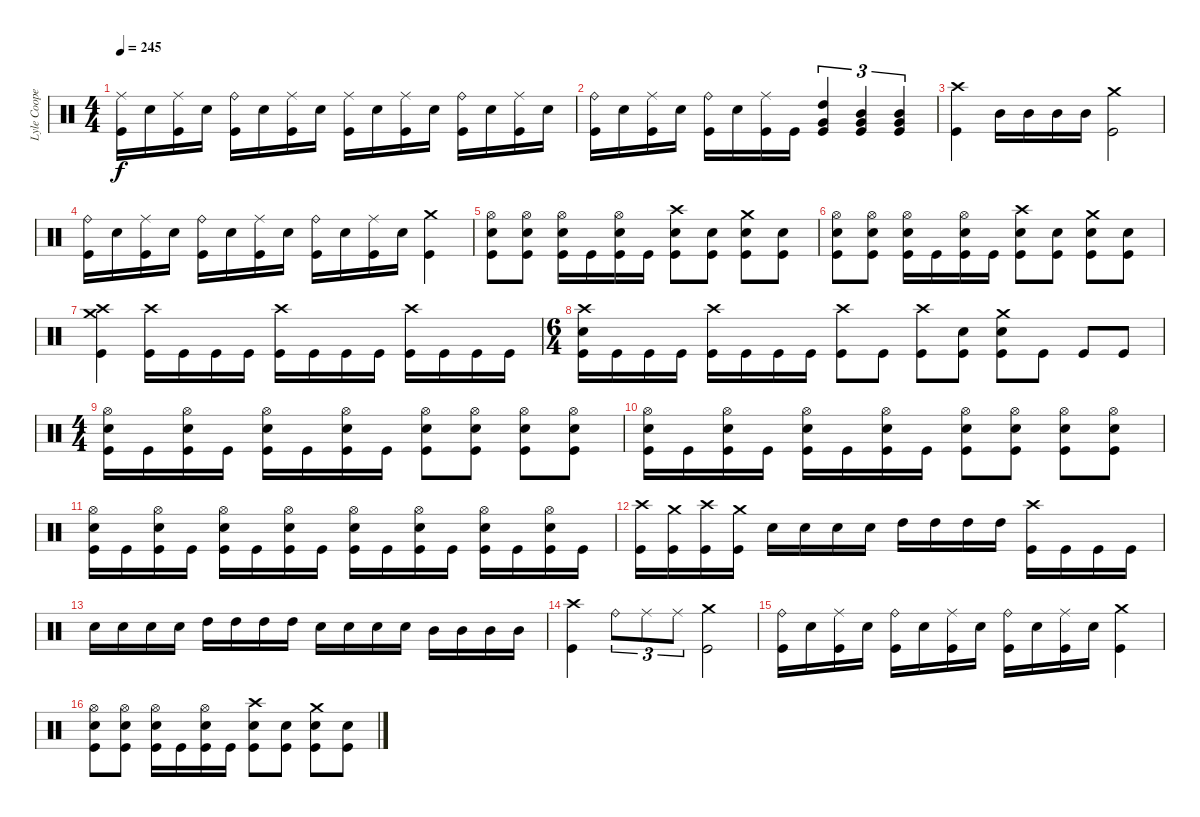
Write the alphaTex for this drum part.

\track ("Lyle Cooper" "Lyle Coope") {instrument percussion}
\staff {score}
\articulation defaults
\ts (4 4)
\tempo 245
\clef neutral
\ks c
("Ride (middle)" "Kick (hit)").16{dy f} "Snare (hit) 2".16 ("Ride (middle)" "Kick (hit)").16 "Snare (hit) 2".16 ("Ride (bell)" "Kick (hit)").16 "Snare (hit) 2".16 ("Ride (middle)" "Kick (hit)").16 "Snare (hit) 2".16 ("Ride (middle)" "Kick (hit)").16 "Snare (hit) 2".16 ("Ride (middle)" "Kick (hit)").16 "Snare (hit) 2".16 ("Ride (bell)" "Kick (hit)").16 "Snare (hit) 2".16 ("Ride (middle)" "Kick (hit)").16 "Snare (hit) 2".16 |
("Ride (bell)" "Kick (hit)").16 "Snare (hit) 2".16 ("Ride (middle)" "Kick (hit)").16 "Snare (hit) 2".16 ("Ride (bell)" "Kick (hit)").16 "Snare (hit) 2".16 ("Ride (middle)" "Kick (hit)").16 "Kick (hit)".16 ("Very Low Tom (hit)" "High Tom (hit)" "Kick (hit)").4{tu (3 2)} ("Very Low Tom (hit)" "Mid Tom (hit)" "Kick (hit)").4{tu (3 2)} ("Very Low Tom (hit)" "Mid Tom (hit)" "Kick (hit)").4{tu (3 2)} |
("Crash high (hit)" "Kick (hit)").4 "Mid Tom (hit)".16 "Mid Tom (hit)".16 "Mid Tom (hit)".16 "Mid Tom (hit)".16 ("Crash medium (hit)" "Kick (hit)").2 |
("Ride (bell)" "Kick (hit)").16 "Snare (hit) 2".16 ("Ride (middle)" "Kick (hit)").16 "Snare (hit) 2".16 ("Ride (bell)" "Kick (hit)").16 "Snare (hit) 2".16 ("Ride (middle)" "Kick (hit)").16 "Snare (hit) 2".16 ("Ride (bell)" "Kick (hit)").16 "Snare (hit) 2".16 ("Ride (middle)" "Kick (hit)").16 "Snare (hit) 2".16 ("Crash medium (hit)" "Kick (hit)").4 |
("Hi-Hat (open)" "Snare (hit) 2" "Kick (hit)").8 ("Hi-Hat (open)" "Snare (hit) 2" "Kick (hit)").8 ("Hi-Hat (open)" "Snare (hit) 2" "Kick (hit)").16 "Kick (hit)".16 ("Hi-Hat (open)" "Snare (hit) 2" "Kick (hit)").16 "Kick (hit)".16 ("Crash high (hit)" "Snare (hit) 2" "Kick (hit)").8 ("Snare (hit) 2" "Kick (hit)").8 ("Crash medium (hit)" "Snare (hit) 2" "Kick (hit)").8 ("Snare (hit) 2" "Kick (hit)").8 |
("Hi-Hat (open)" "Snare (hit) 2" "Kick (hit)").8 ("Hi-Hat (open)" "Snare (hit) 2" "Kick (hit)").8 ("Hi-Hat (open)" "Snare (hit) 2" "Kick (hit)").16 "Kick (hit)".16 ("Hi-Hat (open)" "Snare (hit) 2" "Kick (hit)").16 "Kick (hit)".16 ("Crash high (hit)" "Snare (hit) 2" "Kick (hit)").8 ("Snare (hit) 2" "Kick (hit)").8 ("Crash medium (hit)" "Snare (hit) 2" "Kick (hit)").8 ("Snare (hit) 2" "Kick (hit)").8 |
("Crash high (hit)" "Crash medium (hit)" "Kick (hit)").4 ("Crash high (hit)" "Kick (hit)").16 "Kick (hit)".16 "Kick (hit)".16 "Kick (hit)".16 ("Crash high (hit)" "Kick (hit)").16 "Kick (hit)".16 "Kick (hit)".16 "Kick (hit)".16 ("Crash high (hit)" "Kick (hit)").16 "Kick (hit)".16 "Kick (hit)".16 "Kick (hit)".16 |
\ts (6 4)
("Crash high (hit)" "Snare (hit) 2" "Kick (hit)").16 "Kick (hit)".16 "Kick (hit)".16 "Kick (hit)".16 ("Crash high (hit)" "Kick (hit)").16 "Kick (hit)".16 "Kick (hit)".16 "Kick (hit)".16 ("Crash high (hit)" "Kick (hit)").8 "Kick (hit)".8 ("Crash high (hit)" "Kick (hit)").8 ("Snare (hit) 2" "Kick (hit)").8 ("Crash medium (hit)" "Snare (hit) 2" "Kick (hit)").8 "Kick (hit)".8 "Kick (hit)".8 "Kick (hit)".8 |
\ts (4 4)
("Hi-Hat (open)" "Snare (hit) 2" "Kick (hit)").16 "Kick (hit)".16 ("Hi-Hat (open)" "Snare (hit) 2" "Kick (hit)").16 "Kick (hit)".16 ("Hi-Hat (open)" "Snare (hit) 2" "Kick (hit)").16 "Kick (hit)".16 ("Hi-Hat (open)" "Snare (hit) 2" "Kick (hit)").16 "Kick (hit)".16 ("Hi-Hat (open)" "Snare (hit) 2" "Kick (hit)").8 ("Hi-Hat (open)" "Snare (hit) 2" "Kick (hit)").8 ("Hi-Hat (open)" "Snare (hit) 2" "Kick (hit)").8 ("Hi-Hat (open)" "Snare (hit) 2" "Kick (hit)").8 |
("Hi-Hat (open)" "Snare (hit) 2" "Kick (hit)").16 "Kick (hit)".16 ("Hi-Hat (open)" "Snare (hit) 2" "Kick (hit)").16 "Kick (hit)".16 ("Hi-Hat (open)" "Snare (hit) 2" "Kick (hit)").16 "Kick (hit)".16 ("Hi-Hat (open)" "Snare (hit) 2" "Kick (hit)").16 "Kick (hit)".16 ("Hi-Hat (open)" "Snare (hit) 2" "Kick (hit)").8 ("Hi-Hat (open)" "Snare (hit) 2" "Kick (hit)").8 ("Hi-Hat (open)" "Snare (hit) 2" "Kick (hit)").8 ("Hi-Hat (open)" "Snare (hit) 2" "Kick (hit)").8 |
("Hi-Hat (open)" "Snare (hit) 2" "Kick (hit)").16 "Kick (hit)".16 ("Hi-Hat (open)" "Snare (hit) 2" "Kick (hit)").16 "Kick (hit)".16 ("Hi-Hat (open)" "Snare (hit) 2" "Kick (hit)").16 "Kick (hit)".16 ("Hi-Hat (open)" "Snare (hit) 2" "Kick (hit)").16 "Kick (hit)".16 ("Hi-Hat (open)" "Snare (hit) 2" "Kick (hit)").16 "Kick (hit)".16 ("Hi-Hat (open)" "Snare (hit) 2" "Kick (hit)").16 "Kick (hit)".16 ("Hi-Hat (open)" "Snare (hit) 2" "Kick (hit)").16 "Kick (hit)".16 ("Hi-Hat (open)" "Snare (hit) 2" "Kick (hit)").16 "Kick (hit)".16 |
("Crash high (hit)" "Kick (hit)").16 ("Crash medium (hit)" "Kick (hit)").16 ("Crash high (hit)" "Kick (hit)").16 ("Crash medium (hit)" "Kick (hit)").16 "Snare (hit) 2".16 "Snare (hit) 2".16 "Snare (hit) 2".16 "Snare (hit) 2".16 "High Tom (hit)".16 "High Tom (hit)".16 "High Tom (hit)".16 "High Tom (hit)".16 ("Crash high (hit)" "Kick (hit)").16 "Kick (hit)".16 "Kick (hit)".16 "Kick (hit)".16 |
"Snare (hit) 2".16 "Snare (hit) 2".16 "Snare (hit) 2".16 "Snare (hit) 2".16 "High Tom (hit)".16 "High Tom (hit)".16 "High Tom (hit)".16 "High Tom (hit)".16 "Snare (hit) 2".16 "Snare (hit) 2".16 "Snare (hit) 2".16 "Snare (hit) 2".16 "Mid Tom (hit)".16 "Mid Tom (hit)".16 "Mid Tom (hit)".16 "Mid Tom (hit)".16 |
("Crash high (hit)" "Kick (hit)").4 "Ride (bell)".8{tu (3 2)} "Ride (middle)".8{tu (3 2)} "Ride (middle)".8{tu (3 2)} ("Crash medium (hit)" "Kick (hit)").2 |
("Ride (bell)" "Kick (hit)").16 "Snare (hit) 2".16 ("Ride (middle)" "Kick (hit)").16 "Snare (hit) 2".16 ("Ride (bell)" "Kick (hit)").16 "Snare (hit) 2".16 ("Ride (middle)" "Kick (hit)").16 "Snare (hit) 2".16 ("Ride (bell)" "Kick (hit)").16 "Snare (hit) 2".16 ("Ride (middle)" "Kick (hit)").16 "Snare (hit) 2".16 ("Crash medium (hit)" "Kick (hit)").4 |
("Hi-Hat (open)" "Snare (hit) 2" "Kick (hit)").8 ("Hi-Hat (open)" "Snare (hit) 2" "Kick (hit)").8 ("Hi-Hat (open)" "Snare (hit) 2" "Kick (hit)").16 "Kick (hit)".16 ("Hi-Hat (open)" "Snare (hit) 2" "Kick (hit)").16 "Kick (hit)".16 ("Crash high (hit)" "Snare (hit) 2" "Kick (hit)").8 ("Snare (hit) 2" "Kick (hit)").8 ("Crash medium (hit)" "Snare (hit) 2" "Kick (hit)").8 ("Snare (hit) 2" "Kick (hit)").8
